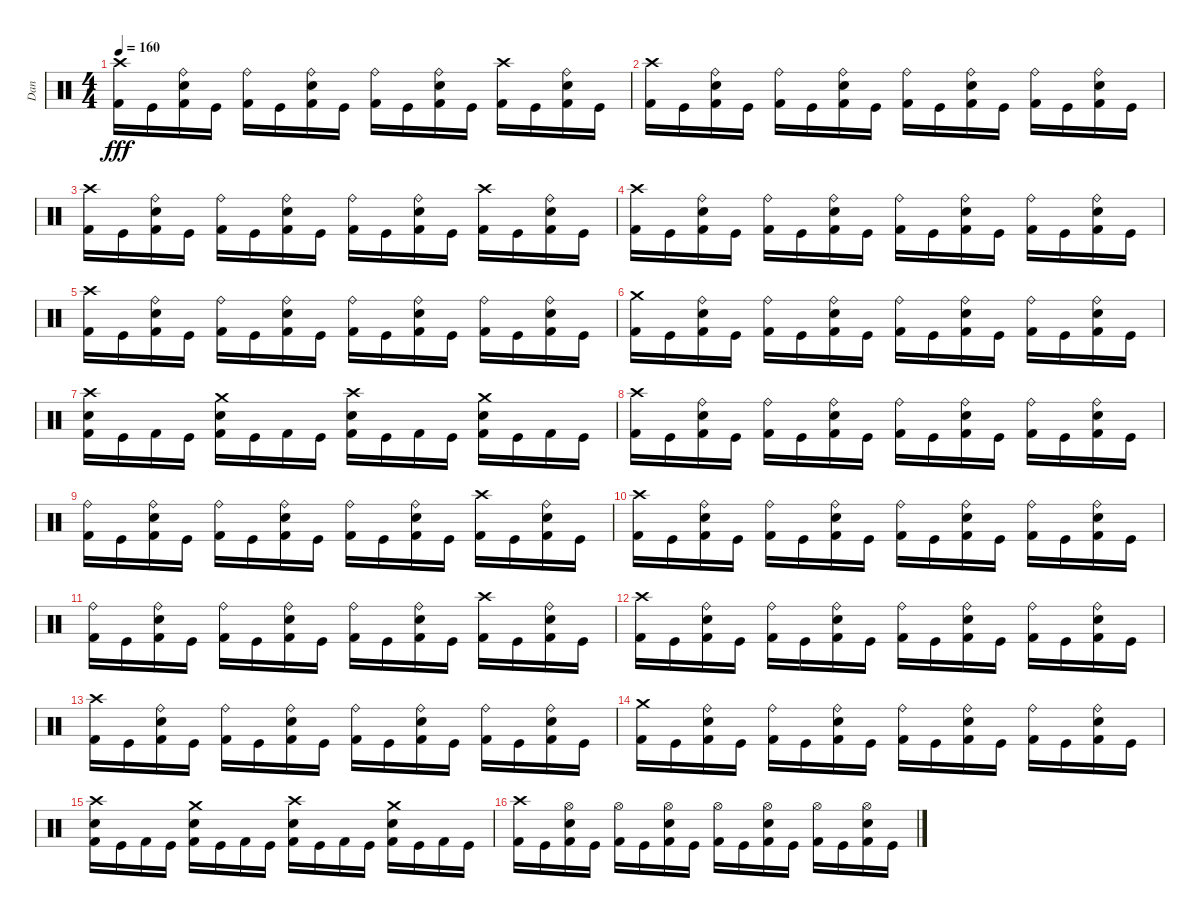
\track ("Dan " "Dan ") {instrument percussion}
\staff {score}
\articulation defaults
\ts (4 4)
\tempo 160
\clef neutral
\ks c
("Crash high (hit)" "Kick (hit) 2").16{dy fff} "Kick (hit)".16 ("Ride (bell)" "Electric Snare (hit)" "Kick (hit) 2").16 "Kick (hit)".16 ("Ride (bell)" "Kick (hit) 2").16 "Kick (hit)".16 ("Ride (bell)" "Electric Snare (hit)" "Kick (hit) 2").16 "Kick (hit)".16 ("Ride (bell)" "Kick (hit) 2").16 "Kick (hit)".16 ("Ride (bell)" "Electric Snare (hit)" "Kick (hit) 2").16 "Kick (hit)".16 ("Crash high (hit)" "Kick (hit) 2").16 "Kick (hit)".16 ("Ride (bell)" "Electric Snare (hit)" "Kick (hit) 2").16 "Kick (hit)".16 |
("Crash high (hit)" "Kick (hit) 2").16 "Kick (hit)".16 ("Ride (bell)" "Electric Snare (hit)" "Kick (hit) 2").16 "Kick (hit)".16 ("Ride (bell)" "Kick (hit) 2").16 "Kick (hit)".16 ("Ride (bell)" "Electric Snare (hit)" "Kick (hit) 2").16 "Kick (hit)".16 ("Ride (bell)" "Kick (hit) 2").16 "Kick (hit)".16 ("Ride (bell)" "Electric Snare (hit)" "Kick (hit) 2").16 "Kick (hit)".16 ("Ride (bell)" "Kick (hit) 2").16 "Kick (hit)".16 ("Ride (bell)" "Electric Snare (hit)" "Kick (hit) 2").16 "Kick (hit)".16 |
("Crash high (hit)" "Kick (hit) 2").16 "Kick (hit)".16 ("Ride (bell)" "Electric Snare (hit)" "Kick (hit) 2").16 "Kick (hit)".16 ("Ride (bell)" "Kick (hit) 2").16 "Kick (hit)".16 ("Ride (bell)" "Electric Snare (hit)" "Kick (hit) 2").16 "Kick (hit)".16 ("Ride (bell)" "Kick (hit) 2").16 "Kick (hit)".16 ("Ride (bell)" "Electric Snare (hit)" "Kick (hit) 2").16 "Kick (hit)".16 ("Crash high (hit)" "Kick (hit) 2").16 "Kick (hit)".16 ("Ride (bell)" "Electric Snare (hit)" "Kick (hit) 2").16 "Kick (hit)".16 |
("Crash high (hit)" "Kick (hit) 2").16 "Kick (hit)".16 ("Ride (bell)" "Electric Snare (hit)" "Kick (hit) 2").16 "Kick (hit)".16 ("Ride (bell)" "Kick (hit) 2").16 "Kick (hit)".16 ("Ride (bell)" "Electric Snare (hit)" "Kick (hit) 2").16 "Kick (hit)".16 ("Ride (bell)" "Kick (hit) 2").16 "Kick (hit)".16 ("Ride (bell)" "Electric Snare (hit)" "Kick (hit) 2").16 "Kick (hit)".16 ("Ride (bell)" "Kick (hit) 2").16 "Kick (hit)".16 ("Ride (bell)" "Electric Snare (hit)" "Kick (hit) 2").16 "Kick (hit)".16 |
("Crash high (hit)" "Kick (hit) 2").16 "Kick (hit)".16 ("Ride (bell)" "Electric Snare (hit)" "Kick (hit) 2").16 "Kick (hit)".16 ("Ride (bell)" "Kick (hit) 2").16 "Kick (hit)".16 ("Ride (bell)" "Electric Snare (hit)" "Kick (hit) 2").16 "Kick (hit)".16 ("Ride (bell)" "Kick (hit) 2").16 "Kick (hit)".16 ("Ride (bell)" "Electric Snare (hit)" "Kick (hit) 2").16 "Kick (hit)".16 ("Ride (bell)" "Kick (hit) 2").16 "Kick (hit)".16 ("Ride (bell)" "Electric Snare (hit)" "Kick (hit) 2").16 "Kick (hit)".16 |
("Crash medium (hit)" "Kick (hit) 2").16 "Kick (hit)".16 ("Ride (bell)" "Electric Snare (hit)" "Kick (hit) 2").16 "Kick (hit)".16 ("Ride (bell)" "Kick (hit) 2").16 "Kick (hit)".16 ("Ride (bell)" "Electric Snare (hit)" "Kick (hit) 2").16 "Kick (hit)".16 ("Ride (bell)" "Kick (hit) 2").16 "Kick (hit)".16 ("Ride (bell)" "Electric Snare (hit)" "Kick (hit) 2").16 "Kick (hit)".16 ("Ride (bell)" "Kick (hit) 2").16 "Kick (hit)".16 ("Ride (bell)" "Electric Snare (hit)" "Kick (hit) 2").16 "Kick (hit)".16 |
("Crash high (hit)" "Electric Snare (hit)" "Kick (hit) 2").16 "Kick (hit)".16 "Kick (hit) 2".16 "Kick (hit)".16 ("Crash medium (hit)" "Electric Snare (hit)" "Kick (hit) 2").16 "Kick (hit)".16 "Kick (hit) 2".16 "Kick (hit)".16 ("Crash high (hit)" "Electric Snare (hit)" "Kick (hit) 2").16 "Kick (hit)".16 "Kick (hit) 2".16 "Kick (hit)".16 ("Crash medium (hit)" "Electric Snare (hit)" "Kick (hit) 2").16 "Kick (hit)".16 "Kick (hit) 2".16 "Kick (hit)".16 |
("Crash high (hit)" "Kick (hit) 2").16 "Kick (hit)".16 ("Ride (bell)" "Electric Snare (hit)" "Kick (hit) 2").16 "Kick (hit)".16 ("Ride (bell)" "Kick (hit) 2").16 "Kick (hit)".16 ("Ride (bell)" "Electric Snare (hit)" "Kick (hit) 2").16 "Kick (hit)".16 ("Ride (bell)" "Kick (hit) 2").16 "Kick (hit)".16 ("Ride (bell)" "Electric Snare (hit)" "Kick (hit) 2").16 "Kick (hit)".16 ("Ride (bell)" "Kick (hit) 2").16 "Kick (hit)".16 ("Ride (bell)" "Electric Snare (hit)" "Kick (hit) 2").16 "Kick (hit)".16 |
("Ride (bell)" "Kick (hit) 2").16 "Kick (hit)".16 ("Ride (bell)" "Electric Snare (hit)" "Kick (hit) 2").16 "Kick (hit)".16 ("Ride (bell)" "Kick (hit) 2").16 "Kick (hit)".16 ("Ride (bell)" "Electric Snare (hit)" "Kick (hit) 2").16 "Kick (hit)".16 ("Ride (bell)" "Kick (hit) 2").16 "Kick (hit)".16 ("Ride (bell)" "Electric Snare (hit)" "Kick (hit) 2").16 "Kick (hit)".16 ("Crash high (hit)" "Kick (hit) 2").16 "Kick (hit)".16 ("Ride (bell)" "Electric Snare (hit)" "Kick (hit) 2").16 "Kick (hit)".16 |
("Crash high (hit)" "Kick (hit) 2").16 "Kick (hit)".16 ("Ride (bell)" "Electric Snare (hit)" "Kick (hit) 2").16 "Kick (hit)".16 ("Ride (bell)" "Kick (hit) 2").16 "Kick (hit)".16 ("Ride (bell)" "Electric Snare (hit)" "Kick (hit) 2").16 "Kick (hit)".16 ("Ride (bell)" "Kick (hit) 2").16 "Kick (hit)".16 ("Ride (bell)" "Electric Snare (hit)" "Kick (hit) 2").16 "Kick (hit)".16 ("Ride (bell)" "Kick (hit) 2").16 "Kick (hit)".16 ("Ride (bell)" "Electric Snare (hit)" "Kick (hit) 2").16 "Kick (hit)".16 |
("Ride (bell)" "Kick (hit) 2").16 "Kick (hit)".16 ("Ride (bell)" "Electric Snare (hit)" "Kick (hit) 2").16 "Kick (hit)".16 ("Ride (bell)" "Kick (hit) 2").16 "Kick (hit)".16 ("Ride (bell)" "Electric Snare (hit)" "Kick (hit) 2").16 "Kick (hit)".16 ("Ride (bell)" "Kick (hit) 2").16 "Kick (hit)".16 ("Ride (bell)" "Electric Snare (hit)" "Kick (hit) 2").16 "Kick (hit)".16 ("Crash high (hit)" "Kick (hit) 2").16 "Kick (hit)".16 ("Ride (bell)" "Electric Snare (hit)" "Kick (hit) 2").16 "Kick (hit)".16 |
("Crash high (hit)" "Kick (hit) 2").16 "Kick (hit)".16 ("Ride (bell)" "Electric Snare (hit)" "Kick (hit) 2").16 "Kick (hit)".16 ("Ride (bell)" "Kick (hit) 2").16 "Kick (hit)".16 ("Ride (bell)" "Electric Snare (hit)" "Kick (hit) 2").16 "Kick (hit)".16 ("Ride (bell)" "Kick (hit) 2").16 "Kick (hit)".16 ("Ride (bell)" "Electric Snare (hit)" "Kick (hit) 2").16 "Kick (hit)".16 ("Ride (bell)" "Kick (hit) 2").16 "Kick (hit)".16 ("Ride (bell)" "Electric Snare (hit)" "Kick (hit) 2").16 "Kick (hit)".16 |
("Crash high (hit)" "Kick (hit) 2").16 "Kick (hit)".16 ("Ride (bell)" "Electric Snare (hit)" "Kick (hit) 2").16 "Kick (hit)".16 ("Ride (bell)" "Kick (hit) 2").16 "Kick (hit)".16 ("Ride (bell)" "Electric Snare (hit)" "Kick (hit) 2").16 "Kick (hit)".16 ("Ride (bell)" "Kick (hit) 2").16 "Kick (hit)".16 ("Ride (bell)" "Electric Snare (hit)" "Kick (hit) 2").16 "Kick (hit)".16 ("Ride (bell)" "Kick (hit) 2").16 "Kick (hit)".16 ("Ride (bell)" "Electric Snare (hit)" "Kick (hit) 2").16 "Kick (hit)".16 |
("Crash medium (hit)" "Kick (hit) 2").16 "Kick (hit)".16 ("Ride (bell)" "Electric Snare (hit)" "Kick (hit) 2").16 "Kick (hit)".16 ("Ride (bell)" "Kick (hit) 2").16 "Kick (hit)".16 ("Ride (bell)" "Electric Snare (hit)" "Kick (hit) 2").16 "Kick (hit)".16 ("Ride (bell)" "Kick (hit) 2").16 "Kick (hit)".16 ("Ride (bell)" "Electric Snare (hit)" "Kick (hit) 2").16 "Kick (hit)".16 ("Ride (bell)" "Kick (hit) 2").16 "Kick (hit)".16 ("Ride (bell)" "Electric Snare (hit)" "Kick (hit) 2").16 "Kick (hit)".16 |
("Crash high (hit)" "Electric Snare (hit)" "Kick (hit) 2").16 "Kick (hit)".16 "Kick (hit) 2".16 "Kick (hit)".16 ("Crash medium (hit)" "Electric Snare (hit)" "Kick (hit) 2").16 "Kick (hit)".16 "Kick (hit) 2".16 "Kick (hit)".16 ("Crash high (hit)" "Electric Snare (hit)" "Kick (hit) 2").16 "Kick (hit)".16 "Kick (hit) 2".16 "Kick (hit)".16 ("Crash medium (hit)" "Electric Snare (hit)" "Kick (hit) 2").16 "Kick (hit)".16 "Kick (hit) 2".16 "Kick (hit)".16 |
("Crash high (hit)" "Kick (hit) 2").16 "Kick (hit)".16 ("Hi-Hat (open)" "Electric Snare (hit)" "Kick (hit) 2").16 "Kick (hit)".16 ("Hi-Hat (open)" "Kick (hit) 2").16 "Kick (hit)".16 ("Hi-Hat (open)" "Electric Snare (hit)" "Kick (hit) 2").16 "Kick (hit)".16 ("Hi-Hat (open)" "Kick (hit) 2").16 "Kick (hit)".16 ("Hi-Hat (open)" "Electric Snare (hit)" "Kick (hit) 2").16 "Kick (hit)".16 ("Hi-Hat (open)" "Kick (hit) 2").16 "Kick (hit)".16 ("Hi-Hat (open)" "Electric Snare (hit)" "Kick (hit) 2").16 "Kick (hit)".16
